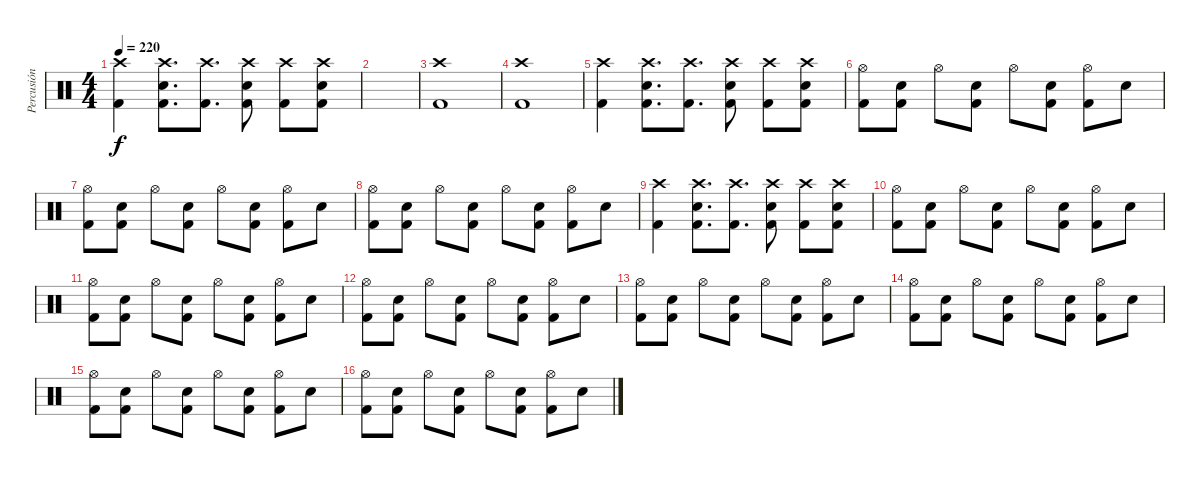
\track ("Percusión" "Percusión") {instrument percussion}
\staff {score}
\articulation defaults
\ts (4 4)
\tempo 220
\clef neutral
\ks c
("Crash high (hit)" "Kick (hit) 2").4{dy f} ("Crash high (hit)" "Electric Snare (hit)" "Kick (hit) 2").8{d} ("Crash high (hit)" "Kick (hit) 2").8{d} ("Crash high (hit)" "Electric Snare (hit)" "Kick (hit) 2").8 ("Crash high (hit)" "Kick (hit) 2").8 ("Crash high (hit)" "Electric Snare (hit)" "Kick (hit) 2").8 |
|
("Crash high (hit)" "Kick (hit) 2").1 |
("Crash high (hit)" "Kick (hit) 2").1 |
("Crash high (hit)" "Kick (hit) 2").4 ("Crash high (hit)" "Electric Snare (hit)" "Kick (hit) 2").8{d} ("Crash high (hit)" "Kick (hit) 2").8{d} ("Crash high (hit)" "Electric Snare (hit)" "Kick (hit) 2").8 ("Crash high (hit)" "Kick (hit) 2").8 ("Crash high (hit)" "Electric Snare (hit)" "Kick (hit) 2").8 |
("Hi-Hat (open)" "Kick (hit) 2").8 ("Electric Snare (hit)" "Kick (hit) 2").8 "Hi-Hat (open)".8 ("Electric Snare (hit)" "Kick (hit) 2").8 "Hi-Hat (open)".8 ("Electric Snare (hit)" "Kick (hit) 2").8 ("Hi-Hat (open)" "Kick (hit) 2").8 "Electric Snare (hit)".8 |
("Hi-Hat (open)" "Kick (hit) 2").8 ("Electric Snare (hit)" "Kick (hit) 2").8 "Hi-Hat (open)".8 ("Electric Snare (hit)" "Kick (hit) 2").8 "Hi-Hat (open)".8 ("Electric Snare (hit)" "Kick (hit) 2").8 ("Hi-Hat (open)" "Kick (hit) 2").8 "Electric Snare (hit)".8 |
("Hi-Hat (open)" "Kick (hit) 2").8 ("Electric Snare (hit)" "Kick (hit) 2").8 "Hi-Hat (open)".8 ("Electric Snare (hit)" "Kick (hit) 2").8 "Hi-Hat (open)".8 ("Electric Snare (hit)" "Kick (hit) 2").8 ("Hi-Hat (open)" "Kick (hit) 2").8 "Electric Snare (hit)".8 |
("Crash high (hit)" "Kick (hit) 2").4 ("Crash high (hit)" "Electric Snare (hit)" "Kick (hit) 2").8{d} ("Crash high (hit)" "Kick (hit) 2").8{d} ("Crash high (hit)" "Electric Snare (hit)" "Kick (hit) 2").8 ("Crash high (hit)" "Kick (hit) 2").8 ("Crash high (hit)" "Electric Snare (hit)" "Kick (hit) 2").8 |
("Hi-Hat (open)" "Kick (hit) 2").8 ("Electric Snare (hit)" "Kick (hit) 2").8 "Hi-Hat (open)".8 ("Electric Snare (hit)" "Kick (hit) 2").8 "Hi-Hat (open)".8 ("Electric Snare (hit)" "Kick (hit) 2").8 ("Hi-Hat (open)" "Kick (hit) 2").8 "Electric Snare (hit)".8 |
("Hi-Hat (open)" "Kick (hit) 2").8 ("Electric Snare (hit)" "Kick (hit) 2").8 "Hi-Hat (open)".8 ("Electric Snare (hit)" "Kick (hit) 2").8 "Hi-Hat (open)".8 ("Electric Snare (hit)" "Kick (hit) 2").8 ("Hi-Hat (open)" "Kick (hit) 2").8 "Electric Snare (hit)".8 |
("Hi-Hat (open)" "Kick (hit) 2").8 ("Electric Snare (hit)" "Kick (hit) 2").8 "Hi-Hat (open)".8 ("Electric Snare (hit)" "Kick (hit) 2").8 "Hi-Hat (open)".8 ("Electric Snare (hit)" "Kick (hit) 2").8 ("Hi-Hat (open)" "Kick (hit) 2").8 "Electric Snare (hit)".8 |
("Hi-Hat (open)" "Kick (hit) 2").8 ("Electric Snare (hit)" "Kick (hit) 2").8 "Hi-Hat (open)".8 ("Electric Snare (hit)" "Kick (hit) 2").8 "Hi-Hat (open)".8 ("Electric Snare (hit)" "Kick (hit) 2").8 ("Hi-Hat (open)" "Kick (hit) 2").8 "Electric Snare (hit)".8 |
("Hi-Hat (open)" "Kick (hit) 2").8 ("Electric Snare (hit)" "Kick (hit) 2").8 "Hi-Hat (open)".8 ("Electric Snare (hit)" "Kick (hit) 2").8 "Hi-Hat (open)".8 ("Electric Snare (hit)" "Kick (hit) 2").8 ("Hi-Hat (open)" "Kick (hit) 2").8 "Electric Snare (hit)".8 |
("Hi-Hat (open)" "Kick (hit) 2").8 ("Electric Snare (hit)" "Kick (hit) 2").8 "Hi-Hat (open)".8 ("Electric Snare (hit)" "Kick (hit) 2").8 "Hi-Hat (open)".8 ("Electric Snare (hit)" "Kick (hit) 2").8 ("Hi-Hat (open)" "Kick (hit) 2").8 "Electric Snare (hit)".8 |
("Hi-Hat (open)" "Kick (hit) 2").8 ("Electric Snare (hit)" "Kick (hit) 2").8 "Hi-Hat (open)".8 ("Electric Snare (hit)" "Kick (hit) 2").8 "Hi-Hat (open)".8 ("Electric Snare (hit)" "Kick (hit) 2").8 ("Hi-Hat (open)" "Kick (hit) 2").8 "Electric Snare (hit)".8
